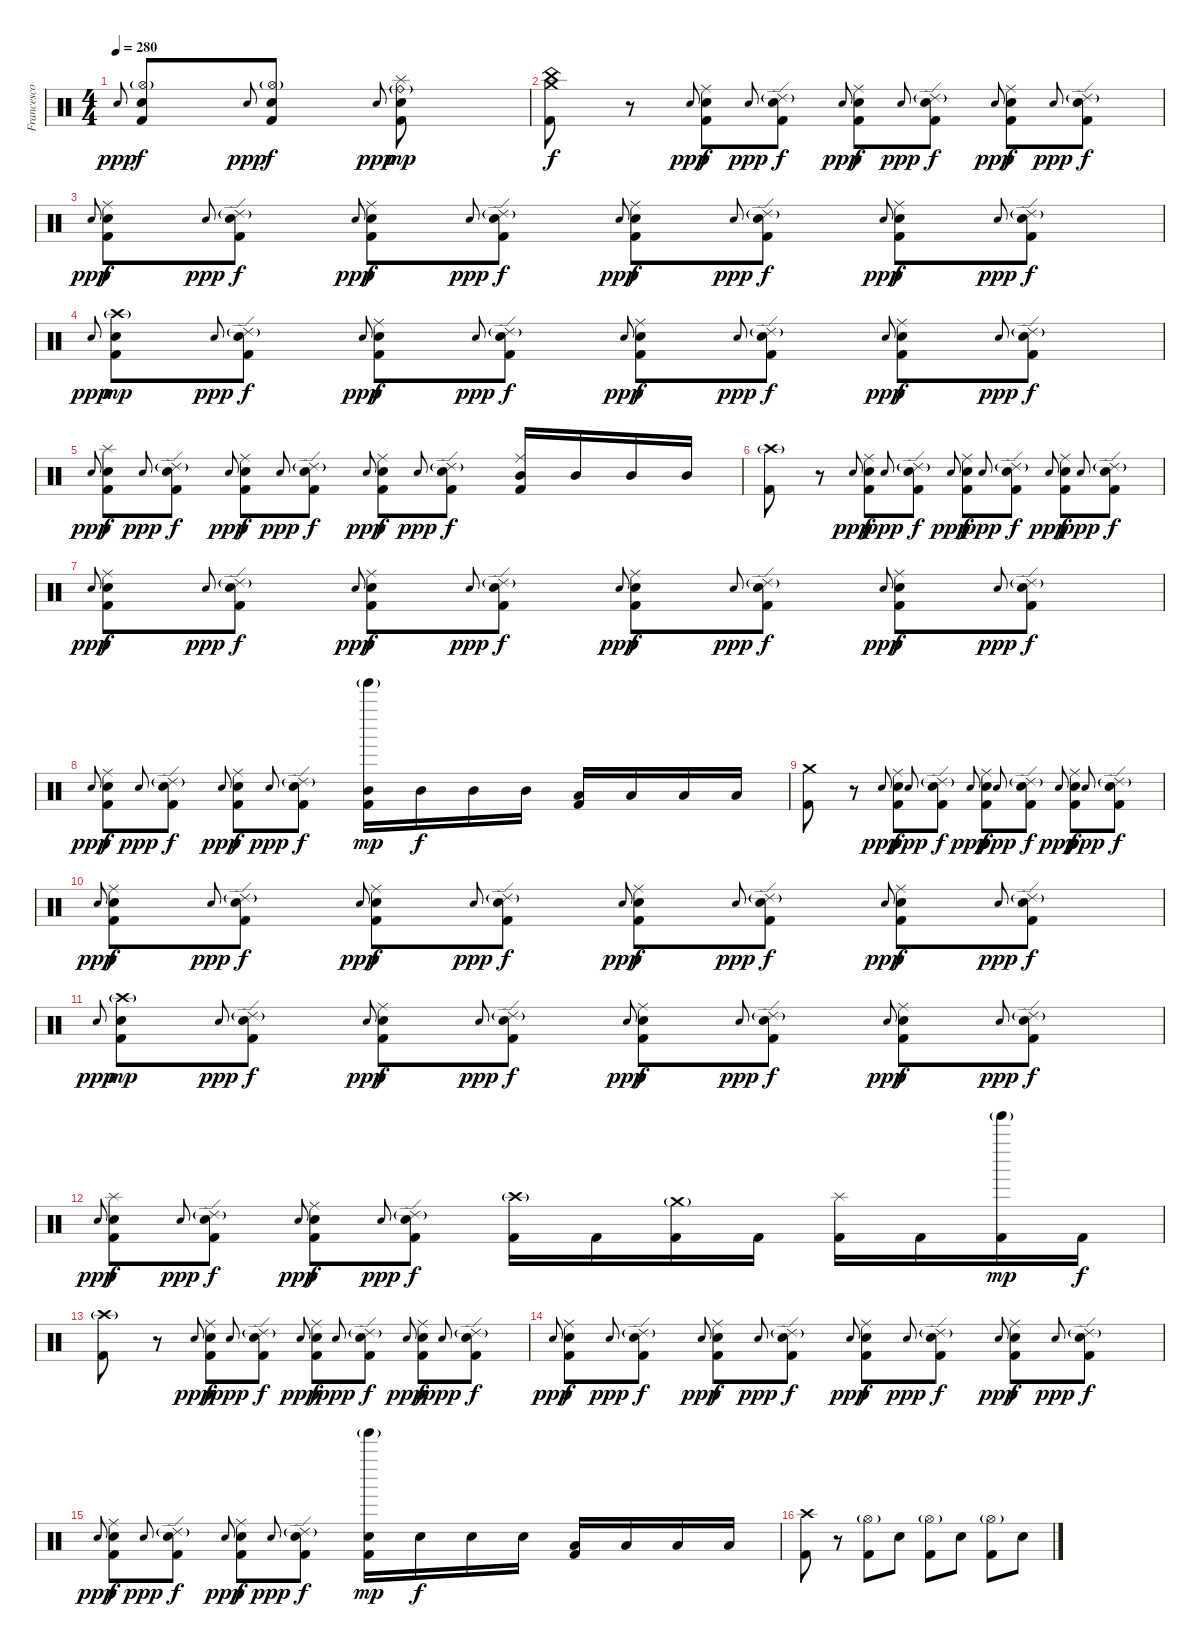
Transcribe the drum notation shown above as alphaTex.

\track ("Francesco Ferrini" "Francesco ") {instrument percussion}
\staff {score}
\articulation defaults
\ts (4 4)
\tempo 280
\clef neutral
\ks c "Electric Snare (hit)"{h}.8{gr onbeat dy ppp}
("Hi-Hat (open)"{g} "Electric Snare (hit)" "Kick (hit) 2").8{dy f} "Electric Snare (hit)"{h}.8{gr onbeat dy ppp} ("Hi-Hat (open)"{g} "Electric Snare (hit)" "Kick (hit) 2").8{dy f} "Electric Snare (hit)"{h}.8{gr onbeat dy ppp} ("Splash (hit)" "Ride (bell)"{g} "Electric Snare (hit)" "Kick (hit) 2").8{dy mp} |
("China (hit)" "Crash medium (hit)" "Kick (hit) 2").8{dy f} r.8 "Electric Snare (hit)"{h}.8{gr onbeat dy ppp} ("Ride (middle)" "Electric Snare (hit)" "Kick (hit) 2").8{dy f} "Electric Snare (hit)"{h}.8{gr onbeat dy ppp} ("Ride (edge) 2"{g} "Electric Snare (hit)" "Kick (hit) 2").8{dy f} "Electric Snare (hit)"{h}.8{gr onbeat dy ppp} ("Ride (middle)" "Electric Snare (hit)" "Kick (hit) 2").8{dy f} "Electric Snare (hit)"{h}.8{gr onbeat dy ppp} ("Ride (edge) 2"{g} "Electric Snare (hit)" "Kick (hit) 2").8{dy f} "Electric Snare (hit)"{h}.8{gr onbeat dy ppp} ("Ride (middle)" "Electric Snare (hit)" "Kick (hit) 2").8{dy f} "Electric Snare (hit)"{h}.8{gr onbeat dy ppp} ("Ride (edge) 2"{g} "Electric Snare (hit)" "Kick (hit) 2").8{dy f} |
"Electric Snare (hit)"{h}.8{gr onbeat dy ppp} ("Ride (middle)" "Electric Snare (hit)" "Kick (hit) 2").8{dy f} "Electric Snare (hit)"{h}.8{gr onbeat dy ppp} ("Ride (edge) 2"{g} "Electric Snare (hit)" "Kick (hit) 2").8{dy f} "Electric Snare (hit)"{h}.8{gr onbeat dy ppp} ("Ride (middle)" "Electric Snare (hit)" "Kick (hit) 2").8{dy f} "Electric Snare (hit)"{h}.8{gr onbeat dy ppp} ("Ride (edge) 2"{g} "Electric Snare (hit)" "Kick (hit) 2").8{dy f} "Electric Snare (hit)"{h}.8{gr onbeat dy ppp} ("Ride (middle)" "Electric Snare (hit)" "Kick (hit) 2").8{dy f} "Electric Snare (hit)"{h}.8{gr onbeat dy ppp} ("Ride (edge) 2"{g} "Electric Snare (hit)" "Kick (hit) 2").8{dy f} "Electric Snare (hit)"{h}.8{gr onbeat dy ppp} ("Ride (middle)" "Electric Snare (hit)" "Kick (hit) 2").8{dy f} "Electric Snare (hit)"{h}.8{gr onbeat dy ppp} ("Ride (edge) 2"{g} "Electric Snare (hit)" "Kick (hit) 2").8{dy f} |
"Electric Snare (hit)"{h}.8{gr onbeat dy ppp} ("Crash high (hit)"{g} "Electric Snare (hit)" "Kick (hit) 2").8{dy mp} "Electric Snare (hit)"{h}.8{gr onbeat dy ppp} ("Ride (edge) 2"{g} "Electric Snare (hit)" "Kick (hit) 2").8{dy f} "Electric Snare (hit)"{h}.8{gr onbeat dy ppp} ("Ride (middle)" "Electric Snare (hit)" "Kick (hit) 2").8{dy f} "Electric Snare (hit)"{h}.8{gr onbeat dy ppp} ("Ride (edge) 2"{g} "Electric Snare (hit)" "Kick (hit) 2").8{dy f} "Electric Snare (hit)"{h}.8{gr onbeat dy ppp} ("Ride (middle)" "Electric Snare (hit)" "Kick (hit) 2").8{dy f} "Electric Snare (hit)"{h}.8{gr onbeat dy ppp} ("Ride (edge) 2"{g} "Electric Snare (hit)" "Kick (hit) 2").8{dy f} "Electric Snare (hit)"{h}.8{gr onbeat dy ppp} ("Ride (middle)" "Electric Snare (hit)" "Kick (hit) 2").8{dy f} "Electric Snare (hit)"{h}.8{gr onbeat dy ppp} ("Ride (edge) 2"{g} "Electric Snare (hit)" "Kick (hit) 2").8{dy f} |
"Electric Snare (hit)"{h}.8{gr onbeat dy ppp} ("Splash (hit)" "Electric Snare (hit)" "Kick (hit) 2").8{dy f} "Electric Snare (hit)"{h}.8{gr onbeat dy ppp} ("Ride (edge) 2"{g} "Electric Snare (hit)" "Kick (hit) 2").8{dy f} "Electric Snare (hit)"{h}.8{gr onbeat dy ppp} ("Ride (middle)" "Electric Snare (hit)" "Kick (hit) 2").8{dy f} "Electric Snare (hit)"{h}.8{gr onbeat dy ppp} ("Ride (edge) 2"{g} "Electric Snare (hit)" "Kick (hit) 2").8{dy f} "Electric Snare (hit)"{h}.8{gr onbeat dy ppp} ("Ride (middle)" "Electric Snare (hit)" "Kick (hit) 2").8{dy f} "Electric Snare (hit)"{h}.8{gr onbeat dy ppp} ("Ride (edge) 2"{g} "Electric Snare (hit)" "Kick (hit) 2").8{dy f} ("Ride (middle)" "Mid Tom (hit)" "Kick (hit) 2").16 "Mid Tom (hit)".16 "Mid Tom (hit)".16 "Mid Tom (hit)".16 |
("Crash high (hit)"{g} "Kick (hit) 2").8 r.8 "Electric Snare (hit)"{h}.8{gr onbeat dy ppp} ("Ride (middle)" "Electric Snare (hit)" "Kick (hit) 2").8{dy f} "Electric Snare (hit)"{h}.8{gr onbeat dy ppp} ("Ride (edge) 2"{g} "Electric Snare (hit)" "Kick (hit) 2").8{dy f} "Electric Snare (hit)"{h}.8{gr onbeat dy ppp} ("Ride (middle)" "Electric Snare (hit)" "Kick (hit) 2").8{dy f} "Electric Snare (hit)"{h}.8{gr onbeat dy ppp} ("Ride (edge) 2"{g} "Electric Snare (hit)" "Kick (hit) 2").8{dy f} "Electric Snare (hit)"{h}.8{gr onbeat dy ppp} ("Ride (middle)" "Electric Snare (hit)" "Kick (hit) 2").8{dy f} "Electric Snare (hit)"{h}.8{gr onbeat dy ppp} ("Ride (edge) 2"{g} "Electric Snare (hit)" "Kick (hit) 2").8{dy f} |
"Electric Snare (hit)"{h}.8{gr onbeat dy ppp} ("Ride (middle)" "Electric Snare (hit)" "Kick (hit) 2").8{dy f} "Electric Snare (hit)"{h}.8{gr onbeat dy ppp} ("Ride (edge) 2"{g} "Electric Snare (hit)" "Kick (hit) 2").8{dy f} "Electric Snare (hit)"{h}.8{gr onbeat dy ppp} ("Ride (middle)" "Electric Snare (hit)" "Kick (hit) 2").8{dy f} "Electric Snare (hit)"{h}.8{gr onbeat dy ppp} ("Ride (edge) 2"{g} "Electric Snare (hit)" "Kick (hit) 2").8{dy f} "Electric Snare (hit)"{h}.8{gr onbeat dy ppp} ("Ride (middle)" "Electric Snare (hit)" "Kick (hit) 2").8{dy f} "Electric Snare (hit)"{h}.8{gr onbeat dy ppp} ("Ride (edge) 2"{g} "Electric Snare (hit)" "Kick (hit) 2").8{dy f} "Electric Snare (hit)"{h}.8{gr onbeat dy ppp} ("Ride (middle)" "Electric Snare (hit)" "Kick (hit) 2").8{dy f} "Electric Snare (hit)"{h}.8{gr onbeat dy ppp} ("Ride (edge) 2"{g} "Electric Snare (hit)" "Kick (hit) 2").8{dy f} |
"Electric Snare (hit)"{h}.8{gr onbeat dy ppp} ("Ride (middle)" "Electric Snare (hit)" "Kick (hit) 2").8{dy f} "Electric Snare (hit)"{h}.8{gr onbeat dy ppp} ("Ride (edge) 2"{g} "Electric Snare (hit)" "Kick (hit) 2").8{dy f} "Electric Snare (hit)"{h}.8{gr onbeat dy ppp} ("Ride (middle)" "Electric Snare (hit)" "Kick (hit) 2").8{dy f} "Electric Snare (hit)"{h}.8{gr onbeat dy ppp} ("Ride (edge) 2"{g} "Electric Snare (hit)" "Kick (hit) 2").8{dy f} ("Tinkle Bell (hit)"{g} "Mid Tom (hit)" "Kick (hit) 2").16{dy mp} "Mid Tom (hit)".16{dy f} "Mid Tom (hit)".16 "Mid Tom (hit)".16 ("Low Tom (hit)" "Kick (hit) 2").16 "Low Tom (hit)".16 "Low Tom (hit)".16 "Low Tom (hit)".16 |
("Crash medium (hit)" "Kick (hit) 2").8 r.8 "Electric Snare (hit)"{h}.8{gr onbeat dy ppp} ("Ride (middle)" "Electric Snare (hit)" "Kick (hit) 2").8{dy f} "Electric Snare (hit)"{h}.8{gr onbeat dy ppp} ("Ride (edge) 2"{g} "Electric Snare (hit)" "Kick (hit) 2").8{dy f} "Electric Snare (hit)"{h}.8{gr onbeat dy ppp} ("Ride (middle)" "Electric Snare (hit)" "Kick (hit) 2").8{dy f} "Electric Snare (hit)"{h}.8{gr onbeat dy ppp} ("Ride (edge) 2"{g} "Electric Snare (hit)" "Kick (hit) 2").8{dy f} "Electric Snare (hit)"{h}.8{gr onbeat dy ppp} ("Ride (middle)" "Electric Snare (hit)" "Kick (hit) 2").8{dy f} "Electric Snare (hit)"{h}.8{gr onbeat dy ppp} ("Ride (edge) 2"{g} "Electric Snare (hit)" "Kick (hit) 2").8{dy f} |
"Electric Snare (hit)"{h}.8{gr onbeat dy ppp} ("Ride (middle)" "Electric Snare (hit)" "Kick (hit) 2").8{dy f} "Electric Snare (hit)"{h}.8{gr onbeat dy ppp} ("Ride (edge) 2"{g} "Electric Snare (hit)" "Kick (hit) 2").8{dy f} "Electric Snare (hit)"{h}.8{gr onbeat dy ppp} ("Ride (middle)" "Electric Snare (hit)" "Kick (hit) 2").8{dy f} "Electric Snare (hit)"{h}.8{gr onbeat dy ppp} ("Ride (edge) 2"{g} "Electric Snare (hit)" "Kick (hit) 2").8{dy f} "Electric Snare (hit)"{h}.8{gr onbeat dy ppp} ("Ride (middle)" "Electric Snare (hit)" "Kick (hit) 2").8{dy f} "Electric Snare (hit)"{h}.8{gr onbeat dy ppp} ("Ride (edge) 2"{g} "Electric Snare (hit)" "Kick (hit) 2").8{dy f} "Electric Snare (hit)"{h}.8{gr onbeat dy ppp} ("Ride (middle)" "Electric Snare (hit)" "Kick (hit) 2").8{dy f} "Electric Snare (hit)"{h}.8{gr onbeat dy ppp} ("Ride (edge) 2"{g} "Electric Snare (hit)" "Kick (hit) 2").8{dy f} |
"Electric Snare (hit)"{h}.8{gr onbeat dy ppp} ("Crash high (hit)"{g} "Electric Snare (hit)" "Kick (hit) 2").8{dy mp} "Electric Snare (hit)"{h}.8{gr onbeat dy ppp} ("Ride (edge) 2"{g} "Electric Snare (hit)" "Kick (hit) 2").8{dy f} "Electric Snare (hit)"{h}.8{gr onbeat dy ppp} ("Ride (middle)" "Electric Snare (hit)" "Kick (hit) 2").8{dy f} "Electric Snare (hit)"{h}.8{gr onbeat dy ppp} ("Ride (edge) 2"{g} "Electric Snare (hit)" "Kick (hit) 2").8{dy f} "Electric Snare (hit)"{h}.8{gr onbeat dy ppp} ("Ride (middle)" "Electric Snare (hit)" "Kick (hit) 2").8{dy f} "Electric Snare (hit)"{h}.8{gr onbeat dy ppp} ("Ride (edge) 2"{g} "Electric Snare (hit)" "Kick (hit) 2").8{dy f} "Electric Snare (hit)"{h}.8{gr onbeat dy ppp} ("Ride (middle)" "Electric Snare (hit)" "Kick (hit) 2").8{dy f} "Electric Snare (hit)"{h}.8{gr onbeat dy ppp} ("Ride (edge) 2"{g} "Electric Snare (hit)" "Kick (hit) 2").8{dy f} |
"Electric Snare (hit)"{h}.8{gr onbeat dy ppp} ("Splash (hit)" "Electric Snare (hit)" "Kick (hit) 2").8{dy f} "Electric Snare (hit)"{h}.8{gr onbeat dy ppp} ("Ride (edge) 2"{g} "Electric Snare (hit)" "Kick (hit) 2").8{dy f} "Electric Snare (hit)"{h}.8{gr onbeat dy ppp} ("Ride (middle)" "Electric Snare (hit)" "Kick (hit) 2").8{dy f} "Electric Snare (hit)"{h}.8{gr onbeat dy ppp} ("Ride (edge) 2"{g} "Electric Snare (hit)" "Kick (hit) 2").8{dy f} ("Crash high (hit)"{g} "Kick (hit) 2").16 "Kick (hit) 2".16 ("Crash medium (hit)"{g} "Kick (hit) 2").16 "Kick (hit) 2".16 ("Splash (hit)" "Kick (hit) 2").16 "Kick (hit) 2".16 ("Tinkle Bell (hit)"{g} "Kick (hit) 2").16{dy mp} "Kick (hit) 2".16{dy f} |
("Crash high (hit)"{g} "Kick (hit) 2").8 r.8 "Electric Snare (hit)"{h}.8{gr onbeat dy ppp} ("Ride (middle)" "Electric Snare (hit)" "Kick (hit) 2").8{dy f} "Electric Snare (hit)"{h}.8{gr onbeat dy ppp} ("Ride (edge) 2"{g} "Electric Snare (hit)" "Kick (hit) 2").8{dy f} "Electric Snare (hit)"{h}.8{gr onbeat dy ppp} ("Ride (middle)" "Electric Snare (hit)" "Kick (hit) 2").8{dy f} "Electric Snare (hit)"{h}.8{gr onbeat dy ppp} ("Ride (edge) 2"{g} "Electric Snare (hit)" "Kick (hit) 2").8{dy f} "Electric Snare (hit)"{h}.8{gr onbeat dy ppp} ("Ride (middle)" "Electric Snare (hit)" "Kick (hit) 2").8{dy f} "Electric Snare (hit)"{h}.8{gr onbeat dy ppp} ("Ride (edge) 2"{g} "Electric Snare (hit)" "Kick (hit) 2").8{dy f} |
"Electric Snare (hit)"{h}.8{gr onbeat dy ppp} ("Ride (middle)" "Electric Snare (hit)" "Kick (hit) 2").8{dy f} "Electric Snare (hit)"{h}.8{gr onbeat dy ppp} ("Ride (edge) 2"{g} "Electric Snare (hit)" "Kick (hit) 2").8{dy f} "Electric Snare (hit)"{h}.8{gr onbeat dy ppp} ("Ride (middle)" "Electric Snare (hit)" "Kick (hit) 2").8{dy f} "Electric Snare (hit)"{h}.8{gr onbeat dy ppp} ("Ride (edge) 2"{g} "Electric Snare (hit)" "Kick (hit) 2").8{dy f} "Electric Snare (hit)"{h}.8{gr onbeat dy ppp} ("Ride (middle)" "Electric Snare (hit)" "Kick (hit) 2").8{dy f} "Electric Snare (hit)"{h}.8{gr onbeat dy ppp} ("Ride (edge) 2"{g} "Electric Snare (hit)" "Kick (hit) 2").8{dy f} "Electric Snare (hit)"{h}.8{gr onbeat dy ppp} ("Ride (middle)" "Electric Snare (hit)" "Kick (hit) 2").8{dy f} "Electric Snare (hit)"{h}.8{gr onbeat dy ppp} ("Ride (edge) 2"{g} "Electric Snare (hit)" "Kick (hit) 2").8{dy f} |
"Electric Snare (hit)"{h}.8{gr onbeat dy ppp} ("Ride (middle)" "Electric Snare (hit)" "Kick (hit) 2").8{dy f} "Electric Snare (hit)"{h}.8{gr onbeat dy ppp} ("Ride (edge) 2"{g} "Electric Snare (hit)" "Kick (hit) 2").8{dy f} "Electric Snare (hit)"{h}.8{gr onbeat dy ppp} ("Ride (middle)" "Electric Snare (hit)" "Kick (hit) 2").8{dy f} "Electric Snare (hit)"{h}.8{gr onbeat dy ppp} ("Ride (edge) 2"{g} "Electric Snare (hit)" "Kick (hit) 2").8{dy f} ("Tinkle Bell (hit)"{g} "Electric Snare (hit)" "Kick (hit) 2").16{dy mp} "Electric Snare (hit)".16{dy f} "Electric Snare (hit)".16 "Electric Snare (hit)".16 ("Low Tom (hit)" "Kick (hit) 2").16 "Low Tom (hit)".16 "Low Tom (hit)".16 "Low Tom (hit)".16 |
("Crash high (hit)" "Kick (hit) 2").8 r.8 ("Hi-Hat (open)"{g} "Kick (hit) 2").8 "Electric Snare (hit)".8 ("Hi-Hat (open)"{g} "Kick (hit) 2").8 "Electric Snare (hit)".8 ("Hi-Hat (open)"{g} "Kick (hit) 2").8 "Electric Snare (hit)".8
